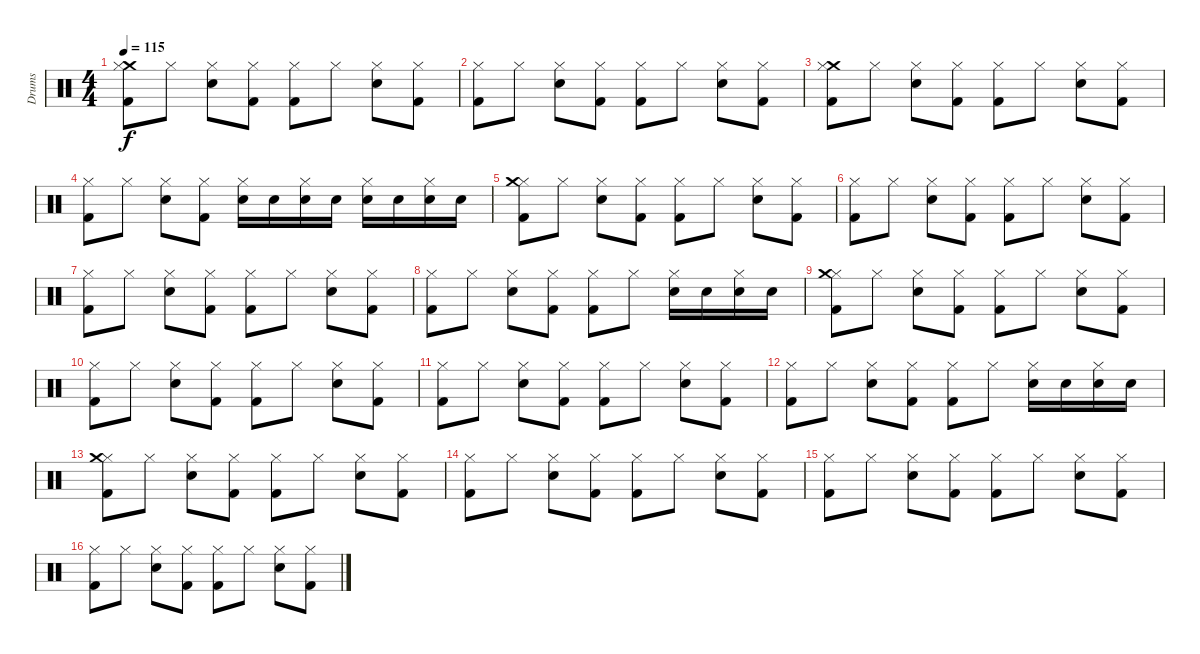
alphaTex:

\track ("Drums" "Drums") {instrument percussion}
\staff {score}
\articulation defaults
\ts (4 4)
\tempo 115
\clef neutral
\ks c
("Crash medium (hit)" "Hi-Hat (closed)" "Kick (hit) 2").8{dy f} "Hi-Hat (closed)".8 ("Hi-Hat (closed)" "Snare (hit) 2").8 ("Hi-Hat (closed)" "Kick (hit) 2").8 ("Hi-Hat (closed)" "Kick (hit) 2").8 "Hi-Hat (closed)".8 ("Hi-Hat (closed)" "Snare (hit) 2").8 ("Hi-Hat (closed)" "Kick (hit) 2").8 |
("Hi-Hat (closed)" "Kick (hit) 2").8 "Hi-Hat (closed)".8 ("Hi-Hat (closed)" "Snare (hit) 2").8 ("Hi-Hat (closed)" "Kick (hit) 2").8 ("Hi-Hat (closed)" "Kick (hit) 2").8 "Hi-Hat (closed)".8 ("Hi-Hat (closed)" "Snare (hit) 2").8 ("Hi-Hat (closed)" "Kick (hit) 2").8 |
("Crash medium (hit)" "Hi-Hat (closed)" "Kick (hit) 2").8 "Hi-Hat (closed)".8 ("Hi-Hat (closed)" "Snare (hit) 2").8 ("Hi-Hat (closed)" "Kick (hit) 2").8 ("Hi-Hat (closed)" "Kick (hit) 2").8 "Hi-Hat (closed)".8 ("Hi-Hat (closed)" "Snare (hit) 2").8 ("Hi-Hat (closed)" "Kick (hit) 2").8 |
("Hi-Hat (closed)" "Kick (hit) 2").8 "Hi-Hat (closed)".8 ("Hi-Hat (closed)" "Snare (hit) 2").8 ("Hi-Hat (closed)" "Kick (hit) 2").8 ("Snare (hit) 2" "Hi-Hat (closed)").16 "Snare (hit) 2".16 ("Snare (hit) 2" "Hi-Hat (closed)").16 "Snare (hit) 2".16 ("Snare (hit) 2" "Hi-Hat (closed)").16 "Snare (hit) 2".16 ("Snare (hit) 2" "Hi-Hat (closed)").16 "Snare (hit) 2".16 |
("Hi-Hat (closed)" "Crash medium (hit)" "Kick (hit) 2").8 "Hi-Hat (closed)".8 ("Hi-Hat (closed)" "Snare (hit) 2").8 ("Hi-Hat (closed)" "Kick (hit) 2").8 ("Hi-Hat (closed)" "Kick (hit) 2").8 "Hi-Hat (closed)".8 ("Hi-Hat (closed)" "Snare (hit) 2").8 ("Hi-Hat (closed)" "Kick (hit) 2").8 |
("Hi-Hat (closed)" "Kick (hit) 2").8 "Hi-Hat (closed)".8 ("Hi-Hat (closed)" "Snare (hit) 2").8 ("Hi-Hat (closed)" "Kick (hit) 2").8 ("Hi-Hat (closed)" "Kick (hit) 2").8 "Hi-Hat (closed)".8 ("Hi-Hat (closed)" "Snare (hit) 2").8 ("Hi-Hat (closed)" "Kick (hit) 2").8 |
("Hi-Hat (closed)" "Kick (hit) 2").8 "Hi-Hat (closed)".8 ("Hi-Hat (closed)" "Snare (hit) 2").8 ("Hi-Hat (closed)" "Kick (hit) 2").8 ("Hi-Hat (closed)" "Kick (hit) 2").8 "Hi-Hat (closed)".8 ("Hi-Hat (closed)" "Snare (hit) 2").8 ("Hi-Hat (closed)" "Kick (hit) 2").8 |
("Hi-Hat (closed)" "Kick (hit) 2").8 "Hi-Hat (closed)".8 ("Hi-Hat (closed)" "Snare (hit) 2").8 ("Hi-Hat (closed)" "Kick (hit) 2").8 ("Hi-Hat (closed)" "Kick (hit) 2").8 "Hi-Hat (closed)".8 ("Snare (hit) 2" "Hi-Hat (closed)").16 "Snare (hit) 2".16 ("Snare (hit) 2" "Hi-Hat (closed)").16 "Snare (hit) 2".16 |
("Hi-Hat (closed)" "Crash medium (hit)" "Kick (hit) 2").8 "Hi-Hat (closed)".8 ("Hi-Hat (closed)" "Snare (hit) 2").8 ("Hi-Hat (closed)" "Kick (hit) 2").8 ("Hi-Hat (closed)" "Kick (hit) 2").8 "Hi-Hat (closed)".8 ("Hi-Hat (closed)" "Snare (hit) 2").8 ("Hi-Hat (closed)" "Kick (hit) 2").8 |
("Hi-Hat (closed)" "Kick (hit) 2").8 "Hi-Hat (closed)".8 ("Hi-Hat (closed)" "Snare (hit) 2").8 ("Hi-Hat (closed)" "Kick (hit) 2").8 ("Hi-Hat (closed)" "Kick (hit) 2").8 "Hi-Hat (closed)".8 ("Hi-Hat (closed)" "Snare (hit) 2").8 ("Hi-Hat (closed)" "Kick (hit) 2").8 |
("Hi-Hat (closed)" "Kick (hit) 2").8 "Hi-Hat (closed)".8 ("Hi-Hat (closed)" "Snare (hit) 2").8 ("Hi-Hat (closed)" "Kick (hit) 2").8 ("Hi-Hat (closed)" "Kick (hit) 2").8 "Hi-Hat (closed)".8 ("Hi-Hat (closed)" "Snare (hit) 2").8 ("Hi-Hat (closed)" "Kick (hit) 2").8 |
("Hi-Hat (closed)" "Kick (hit) 2").8 "Hi-Hat (closed)".8 ("Hi-Hat (closed)" "Snare (hit) 2").8 ("Hi-Hat (closed)" "Kick (hit) 2").8 ("Hi-Hat (closed)" "Kick (hit) 2").8 "Hi-Hat (closed)".8 ("Snare (hit) 2" "Hi-Hat (closed)").16 "Snare (hit) 2".16 ("Snare (hit) 2" "Hi-Hat (closed)").16 "Snare (hit) 2".16 |
("Hi-Hat (closed)" "Crash medium (hit)" "Kick (hit) 2").8 "Hi-Hat (closed)".8 ("Hi-Hat (closed)" "Snare (hit) 2").8 ("Hi-Hat (closed)" "Kick (hit) 2").8 ("Hi-Hat (closed)" "Kick (hit) 2").8 "Hi-Hat (closed)".8 ("Hi-Hat (closed)" "Snare (hit) 2").8 ("Hi-Hat (closed)" "Kick (hit) 2").8 |
("Hi-Hat (closed)" "Kick (hit) 2").8 "Hi-Hat (closed)".8 ("Hi-Hat (closed)" "Snare (hit) 2").8 ("Hi-Hat (closed)" "Kick (hit) 2").8 ("Hi-Hat (closed)" "Kick (hit) 2").8 "Hi-Hat (closed)".8 ("Hi-Hat (closed)" "Snare (hit) 2").8 ("Hi-Hat (closed)" "Kick (hit) 2").8 |
("Hi-Hat (closed)" "Kick (hit) 2").8 "Hi-Hat (closed)".8 ("Hi-Hat (closed)" "Snare (hit) 2").8 ("Hi-Hat (closed)" "Kick (hit) 2").8 ("Hi-Hat (closed)" "Kick (hit) 2").8 "Hi-Hat (closed)".8 ("Hi-Hat (closed)" "Snare (hit) 2").8 ("Hi-Hat (closed)" "Kick (hit) 2").8 |
("Hi-Hat (closed)" "Kick (hit) 2").8 "Hi-Hat (closed)".8 ("Hi-Hat (closed)" "Snare (hit) 2").8 ("Hi-Hat (closed)" "Kick (hit) 2").8 ("Hi-Hat (closed)" "Kick (hit) 2").8 "Hi-Hat (closed)".8 ("Hi-Hat (closed)" "Snare (hit) 2").8 ("Hi-Hat (closed)" "Kick (hit) 2").8
